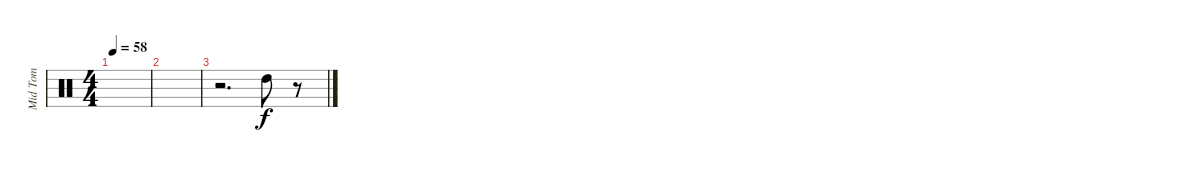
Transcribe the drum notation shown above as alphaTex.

\track ("Mid Tom" "Mid Tom") {instrument percussion}
\staff {score}
\articulation defaults
\ts (4 4)
\tempo 58
\clef neutral
\ks c
|
|
r.2{d} "High Tom (hit)".8 r.8
